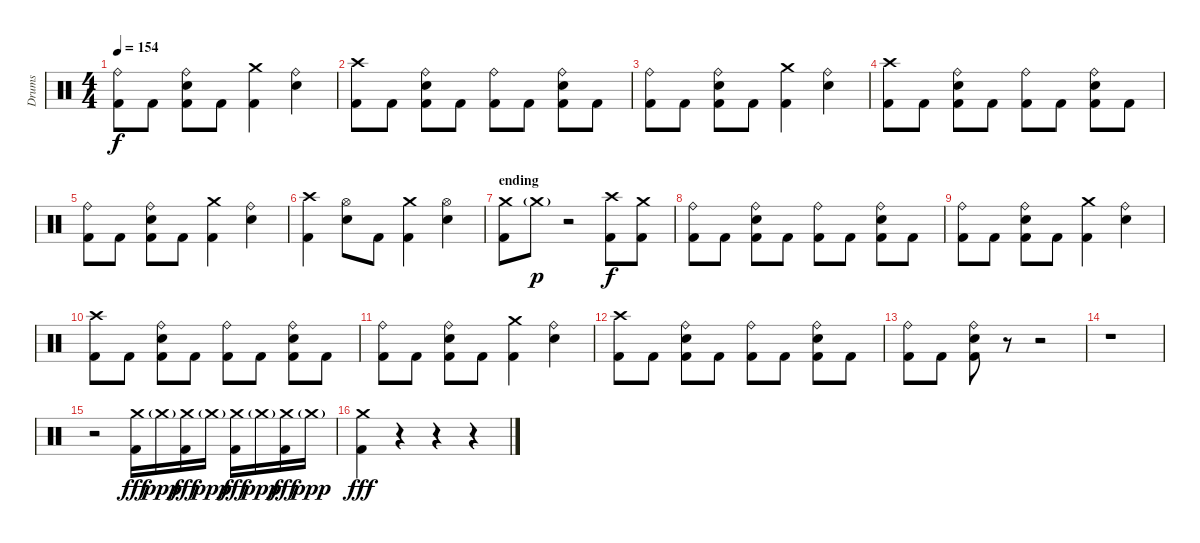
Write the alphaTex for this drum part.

\track ("Drums" "Drums") {instrument percussion}
\staff {score}
\articulation defaults
\ts (4 4)
\tempo 154
\clef neutral
\ks c
("Ride (bell)" "Kick (hit) 2").8{dy f} "Kick (hit) 2".8 ("Ride (bell)" "Electric Snare (hit)" "Kick (hit) 2").8 "Kick (hit) 2".8 ("Crash medium (hit)" "Kick (hit) 2").4 ("Ride (bell)" "Electric Snare (hit)").4 |
("Crash high (hit)" "Kick (hit) 2").8 "Kick (hit) 2".8 ("Ride (bell)" "Electric Snare (hit)" "Kick (hit) 2").8 "Kick (hit) 2".8 ("Ride (bell)" "Kick (hit) 2").8 "Kick (hit) 2".8 ("Ride (bell)" "Electric Snare (hit)" "Kick (hit) 2").8 "Kick (hit) 2".8 |
("Ride (bell)" "Kick (hit) 2").8 "Kick (hit) 2".8 ("Ride (bell)" "Electric Snare (hit)" "Kick (hit) 2").8 "Kick (hit) 2".8 ("Crash medium (hit)" "Kick (hit) 2").4 ("Ride (bell)" "Electric Snare (hit)").4 |
("Crash high (hit)" "Kick (hit) 2").8 "Kick (hit) 2".8 ("Ride (bell)" "Electric Snare (hit)" "Kick (hit) 2").8 "Kick (hit) 2".8 ("Ride (bell)" "Kick (hit) 2").8 "Kick (hit) 2".8 ("Ride (bell)" "Electric Snare (hit)" "Kick (hit) 2").8 "Kick (hit) 2".8 |
("Ride (bell)" "Kick (hit) 2").8 "Kick (hit) 2".8 ("Ride (bell)" "Electric Snare (hit)" "Kick (hit) 2").8 "Kick (hit) 2".8 ("Crash medium (hit)" "Kick (hit) 2").4 ("Ride (bell)" "Electric Snare (hit)").4 |
("Crash high (hit)" "Kick (hit) 2").4 ("Hi-Hat (open)" "Electric Snare (hit)").8 "Kick (hit) 2".8 ("Crash medium (hit)" "Kick (hit) 2").4 ("Hi-Hat (open)" "Electric Snare (hit)").4 |
\section ("" "ending")
("Crash medium (hit)" "Kick (hit) 2").8 "Crash medium (hit)"{g}.8{dy p} r.2 ("Crash high (hit)" "Kick (hit) 2").8{dy f} ("Crash medium (hit)" "Kick (hit) 2").8 |
("Ride (bell)" "Kick (hit) 2").8 "Kick (hit) 2".8 ("Ride (bell)" "Electric Snare (hit)" "Kick (hit) 2").8 "Kick (hit) 2".8 ("Ride (bell)" "Kick (hit) 2").8 "Kick (hit) 2".8 ("Ride (bell)" "Electric Snare (hit)" "Kick (hit) 2").8 "Kick (hit) 2".8 |
("Ride (bell)" "Kick (hit) 2").8 "Kick (hit) 2".8 ("Ride (bell)" "Electric Snare (hit)" "Kick (hit) 2").8 "Kick (hit) 2".8 ("Crash medium (hit)" "Kick (hit) 2").4 ("Ride (bell)" "Electric Snare (hit)").4 |
("Crash high (hit)" "Kick (hit) 2").8 "Kick (hit) 2".8 ("Ride (bell)" "Electric Snare (hit)" "Kick (hit) 2").8 "Kick (hit) 2".8 ("Ride (bell)" "Kick (hit) 2").8 "Kick (hit) 2".8 ("Ride (bell)" "Electric Snare (hit)" "Kick (hit) 2").8 "Kick (hit) 2".8 |
("Ride (bell)" "Kick (hit) 2").8 "Kick (hit) 2".8 ("Ride (bell)" "Electric Snare (hit)" "Kick (hit) 2").8 "Kick (hit) 2".8 ("Crash medium (hit)" "Kick (hit) 2").4 ("Ride (bell)" "Electric Snare (hit)").4 |
("Crash high (hit)" "Kick (hit) 2").8 "Kick (hit) 2".8 ("Ride (bell)" "Electric Snare (hit)" "Kick (hit) 2").8 "Kick (hit) 2".8 ("Ride (bell)" "Kick (hit) 2").8 "Kick (hit) 2".8 ("Ride (bell)" "Electric Snare (hit)" "Kick (hit) 2").8 "Kick (hit) 2".8 |
("Ride (bell)" "Kick (hit) 2").8 "Kick (hit) 2".8 ("Ride (bell)" "Electric Snare (hit)" "Kick (hit) 2").8 r.8 r.2 |
r.1 |
r.2 ("Crash medium (hit)" "Kick (hit) 2").16{dy fff} "Crash medium (hit)"{g}.16{dy ppp} ("Crash medium (hit)" "Kick (hit) 2").16{dy fff} "Crash medium (hit)"{g}.16{dy ppp} ("Crash medium (hit)" "Kick (hit) 2").16{dy fff} "Crash medium (hit)"{g}.16{dy ppp} ("Crash medium (hit)" "Kick (hit) 2").16{dy fff} "Crash medium (hit)"{g}.16{dy ppp} |
("Crash medium (hit)" "Kick (hit) 2").4{dy fff} r.4 r.4 r.4
